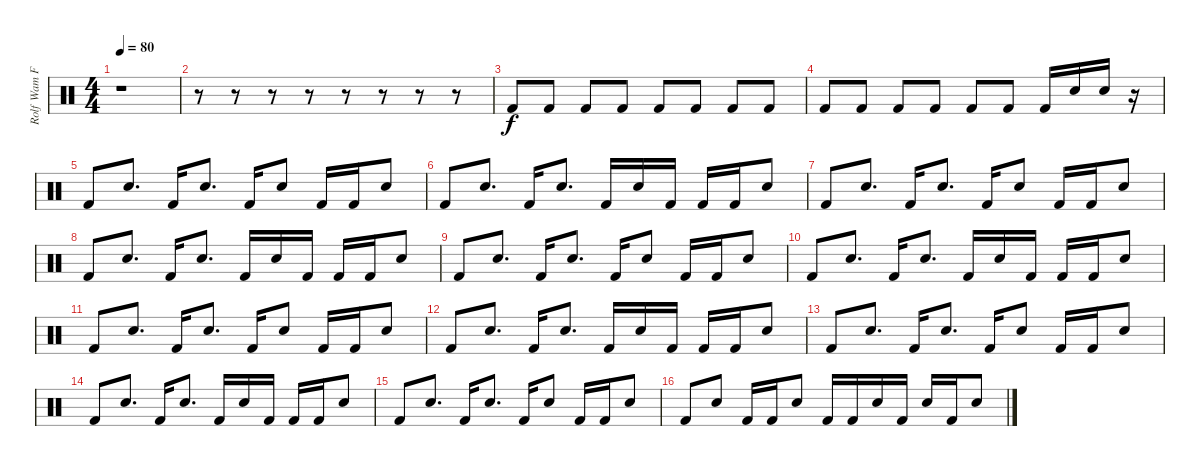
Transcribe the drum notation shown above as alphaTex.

\track ("Rolf Wam Fjell" "Rolf Wam F") {instrument percussion}
\staff {score}
\articulation defaults
\ts (4 4)
\tempo 80
\clef neutral
\ks c
r.1{dy f} |
r.8 r.8 r.8 r.8 r.8 r.8 r.8 r.8 |
"Kick (hit) 2".8 "Kick (hit) 2".8 "Kick (hit) 2".8 "Kick (hit) 2".8 "Kick (hit) 2".8 "Kick (hit) 2".8 "Kick (hit) 2".8 "Kick (hit) 2".8 |
"Kick (hit) 2".8 "Kick (hit) 2".8 "Kick (hit) 2".8 "Kick (hit) 2".8 "Kick (hit) 2".8 "Kick (hit) 2".8 "Kick (hit) 2".16 "Snare (hit) 2".16 "Snare (hit) 2".16 r.16 |
"Kick (hit) 2".8 "Snare (hit) 2".8{d} "Kick (hit) 2".16 "Snare (hit) 2".8{d} "Kick (hit) 2".16 "Snare (hit) 2".8 "Kick (hit) 2".16 "Kick (hit) 2".16 "Snare (hit) 2".8 |
"Kick (hit) 2".8 "Snare (hit) 2".8{d} "Kick (hit) 2".16 "Snare (hit) 2".8{d} "Kick (hit) 2".16 "Snare (hit) 2".16 "Kick (hit) 2".16 "Kick (hit) 2".16 "Kick (hit) 2".16 "Snare (hit) 2".8 |
"Kick (hit) 2".8 "Snare (hit) 2".8{d} "Kick (hit) 2".16 "Snare (hit) 2".8{d} "Kick (hit) 2".16 "Snare (hit) 2".8 "Kick (hit) 2".16 "Kick (hit) 2".16 "Snare (hit) 2".8 |
"Kick (hit) 2".8 "Snare (hit) 2".8{d} "Kick (hit) 2".16 "Snare (hit) 2".8{d} "Kick (hit) 2".16 "Snare (hit) 2".16 "Kick (hit) 2".16 "Kick (hit) 2".16 "Kick (hit) 2".16 "Snare (hit) 2".8 |
"Kick (hit) 2".8 "Snare (hit) 2".8{d} "Kick (hit) 2".16 "Snare (hit) 2".8{d} "Kick (hit) 2".16 "Snare (hit) 2".8 "Kick (hit) 2".16 "Kick (hit) 2".16 "Snare (hit) 2".8 |
"Kick (hit) 2".8 "Snare (hit) 2".8{d} "Kick (hit) 2".16 "Snare (hit) 2".8{d} "Kick (hit) 2".16 "Snare (hit) 2".16 "Kick (hit) 2".16 "Kick (hit) 2".16 "Kick (hit) 2".16 "Snare (hit) 2".8 |
"Kick (hit) 2".8 "Snare (hit) 2".8{d} "Kick (hit) 2".16 "Snare (hit) 2".8{d} "Kick (hit) 2".16 "Snare (hit) 2".8 "Kick (hit) 2".16 "Kick (hit) 2".16 "Snare (hit) 2".8 |
"Kick (hit) 2".8 "Snare (hit) 2".8{d} "Kick (hit) 2".16 "Snare (hit) 2".8{d} "Kick (hit) 2".16 "Snare (hit) 2".16 "Kick (hit) 2".16 "Kick (hit) 2".16 "Kick (hit) 2".16 "Snare (hit) 2".8 |
"Kick (hit) 2".8 "Snare (hit) 2".8{d} "Kick (hit) 2".16 "Snare (hit) 2".8{d} "Kick (hit) 2".16 "Snare (hit) 2".8 "Kick (hit) 2".16 "Kick (hit) 2".16 "Snare (hit) 2".8 |
"Kick (hit) 2".8 "Snare (hit) 2".8{d} "Kick (hit) 2".16 "Snare (hit) 2".8{d} "Kick (hit) 2".16 "Snare (hit) 2".16 "Kick (hit) 2".16 "Kick (hit) 2".16 "Kick (hit) 2".16 "Snare (hit) 2".8 |
"Kick (hit) 2".8 "Snare (hit) 2".8{d} "Kick (hit) 2".16 "Snare (hit) 2".8{d} "Kick (hit) 2".16 "Snare (hit) 2".8 "Kick (hit) 2".16 "Kick (hit) 2".16 "Snare (hit) 2".8 |
"Kick (hit) 2".8 "Snare (hit) 2".8 "Kick (hit) 2".16 "Kick (hit) 2".16 "Snare (hit) 2".8 "Kick (hit) 2".16 "Kick (hit) 2".16 "Snare (hit) 2".16 "Kick (hit) 2".16 "Snare (hit) 2".16 "Kick (hit) 2".16 "Snare (hit) 2".8
